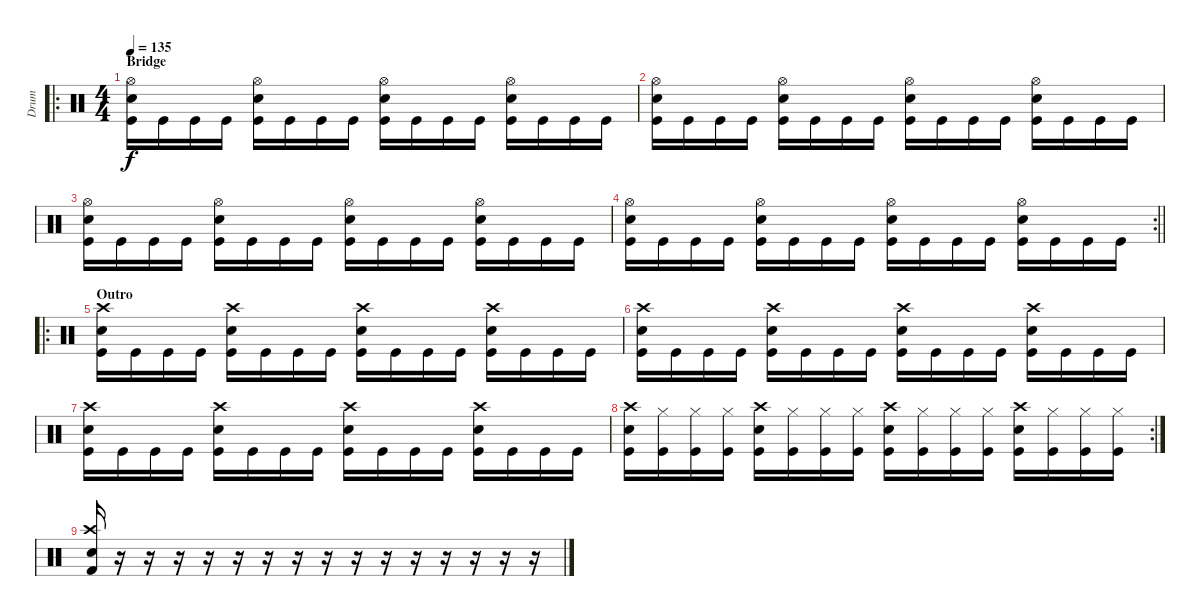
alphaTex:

\track ("Drum" "Drum") {instrument percussion}
\staff {score}
\articulation defaults
\ro
\ts (4 4)
\section ("" "Bridge")
\tempo 135
\clef neutral
\ks c
("Hi-Hat (open)" "Snare (hit) 2" "Kick (hit)").16{dy f} "Kick (hit)".16 "Kick (hit)".16 "Kick (hit)".16 ("Hi-Hat (open)" "Snare (hit) 2" "Kick (hit)").16 "Kick (hit)".16 "Kick (hit)".16 "Kick (hit)".16 ("Hi-Hat (open)" "Snare (hit) 2" "Kick (hit)").16 "Kick (hit)".16 "Kick (hit)".16 "Kick (hit)".16 ("Hi-Hat (open)" "Snare (hit) 2" "Kick (hit)").16 "Kick (hit)".16 "Kick (hit)".16 "Kick (hit)".16 |
("Hi-Hat (open)" "Snare (hit) 2" "Kick (hit)").16 "Kick (hit)".16 "Kick (hit)".16 "Kick (hit)".16 ("Hi-Hat (open)" "Snare (hit) 2" "Kick (hit)").16 "Kick (hit)".16 "Kick (hit)".16 "Kick (hit)".16 ("Hi-Hat (open)" "Snare (hit) 2" "Kick (hit)").16 "Kick (hit)".16 "Kick (hit)".16 "Kick (hit)".16 ("Hi-Hat (open)" "Snare (hit) 2" "Kick (hit)").16 "Kick (hit)".16 "Kick (hit)".16 "Kick (hit)".16 |
("Hi-Hat (open)" "Snare (hit) 2" "Kick (hit)").16 "Kick (hit)".16 "Kick (hit)".16 "Kick (hit)".16 ("Hi-Hat (open)" "Snare (hit) 2" "Kick (hit)").16 "Kick (hit)".16 "Kick (hit)".16 "Kick (hit)".16 ("Hi-Hat (open)" "Snare (hit) 2" "Kick (hit)").16 "Kick (hit)".16 "Kick (hit)".16 "Kick (hit)".16 ("Hi-Hat (open)" "Snare (hit) 2" "Kick (hit)").16 "Kick (hit)".16 "Kick (hit)".16 "Kick (hit)".16 |
\rc 2
\barLineRight lightlight
("Hi-Hat (open)" "Snare (hit) 2" "Kick (hit)").16 "Kick (hit)".16 "Kick (hit)".16 "Kick (hit)".16 ("Hi-Hat (open)" "Snare (hit) 2" "Kick (hit)").16 "Kick (hit)".16 "Kick (hit)".16 "Kick (hit)".16 ("Hi-Hat (open)" "Snare (hit) 2" "Kick (hit)").16 "Kick (hit)".16 "Kick (hit)".16 "Kick (hit)".16 ("Hi-Hat (open)" "Snare (hit) 2" "Kick (hit)").16 "Kick (hit)".16 "Kick (hit)".16 "Kick (hit)".16 |
\ro
\section ("" "Outro")
("Crash high (hit)" "Snare (hit) 2" "Kick (hit)").16 "Kick (hit)".16 "Kick (hit)".16 "Kick (hit)".16 ("Crash high (hit)" "Snare (hit) 2" "Kick (hit)").16 "Kick (hit)".16 "Kick (hit)".16 "Kick (hit)".16 ("Crash high (hit)" "Snare (hit) 2" "Kick (hit)").16 "Kick (hit)".16 "Kick (hit)".16 "Kick (hit)".16 ("Crash high (hit)" "Snare (hit) 2" "Kick (hit)").16 "Kick (hit)".16 "Kick (hit)".16 "Kick (hit)".16 |
("Crash high (hit)" "Snare (hit) 2" "Kick (hit)").16 "Kick (hit)".16 "Kick (hit)".16 "Kick (hit)".16 ("Crash high (hit)" "Snare (hit) 2" "Kick (hit)").16 "Kick (hit)".16 "Kick (hit)".16 "Kick (hit)".16 ("Crash high (hit)" "Snare (hit) 2" "Kick (hit)").16 "Kick (hit)".16 "Kick (hit)".16 "Kick (hit)".16 ("Crash high (hit)" "Snare (hit) 2" "Kick (hit)").16 "Kick (hit)".16 "Kick (hit)".16 "Kick (hit)".16 |
("Crash high (hit)" "Snare (hit) 2" "Kick (hit)").16 "Kick (hit)".16 "Kick (hit)".16 "Kick (hit)".16 ("Crash high (hit)" "Snare (hit) 2" "Kick (hit)").16 "Kick (hit)".16 "Kick (hit)".16 "Kick (hit)".16 ("Crash high (hit)" "Snare (hit) 2" "Kick (hit)").16 "Kick (hit)".16 "Kick (hit)".16 "Kick (hit)".16 ("Crash high (hit)" "Snare (hit) 2" "Kick (hit)").16 "Kick (hit)".16 "Kick (hit)".16 "Kick (hit)".16 |
\rc 2
("Crash high (hit)" "Snare (hit) 2" "Kick (hit)").16 ("Hi-Hat (closed)" "Kick (hit)").16 ("Hi-Hat (closed)" "Kick (hit)").16 ("Hi-Hat (closed)" "Kick (hit)").16 ("Crash high (hit)" "Snare (hit) 2" "Kick (hit)").16 ("Hi-Hat (closed)" "Kick (hit)").16 ("Hi-Hat (closed)" "Kick (hit)").16 ("Hi-Hat (closed)" "Kick (hit)").16 ("Crash high (hit)" "Snare (hit) 2" "Kick (hit)").16 ("Hi-Hat (closed)" "Kick (hit)").16 ("Hi-Hat (closed)" "Kick (hit)").16 ("Hi-Hat (closed)" "Kick (hit)").16 ("Crash high (hit)" "Snare (hit) 2" "Kick (hit)").16 ("Hi-Hat (closed)" "Kick (hit)").16 ("Hi-Hat (closed)" "Kick (hit)").16 ("Hi-Hat (closed)" "Kick (hit)").16 |
("Crash high (hit)" "Kick (hit) 2" "Snare (hit) 2").16 r.16 r.16 r.16 r.16 r.16 r.16 r.16 r.16 r.16 r.16 r.16 r.16 r.16 r.16 r.16
